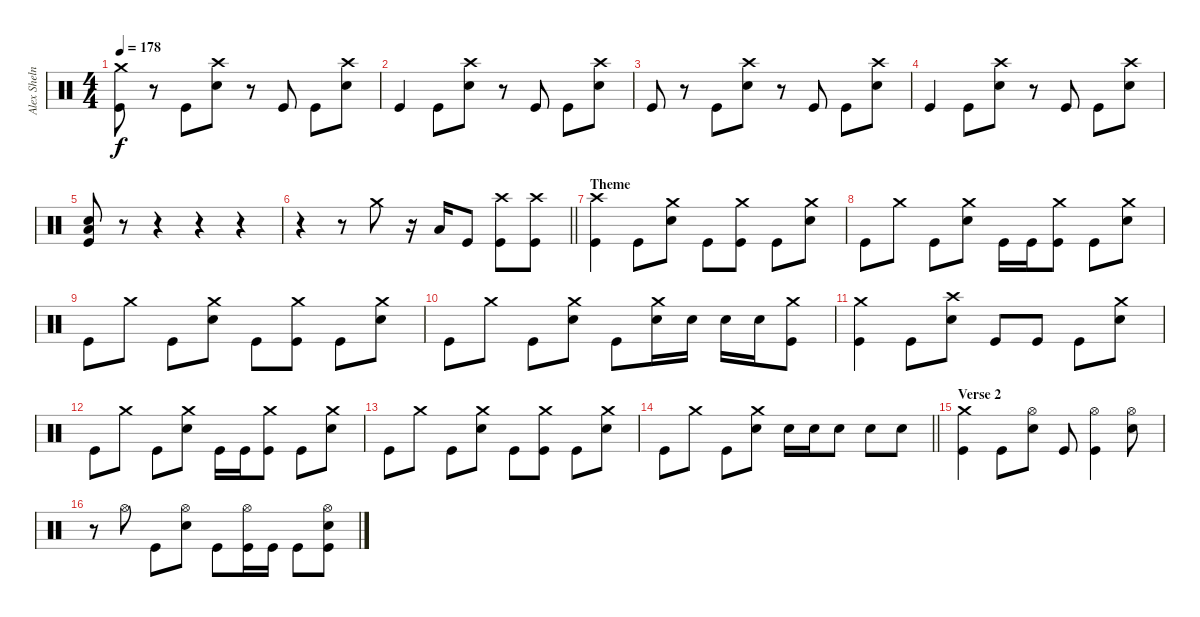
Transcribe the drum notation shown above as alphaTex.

\track ("Alex Shelnut" "Alex Sheln") {instrument percussion}
\staff {score}
\articulation defaults
\ts (4 4)
\tempo 178
\clef neutral
\ks c
("Crash medium (hit)" "Kick (hit)").8{dy f} r.8 "Kick (hit)".8 ("Crash high (hit)" "Electric Snare (hit)").8 r.8 "Kick (hit)".8 "Kick (hit)".8 ("Crash high (hit)" "Electric Snare (hit)").8 |
"Kick (hit)".4 "Kick (hit)".8 ("Crash high (hit)" "Electric Snare (hit)").8 r.8 "Kick (hit)".8 "Kick (hit)".8 ("Crash high (hit)" "Electric Snare (hit)").8 |
"Kick (hit)".8 r.8 "Kick (hit)".8 ("Crash high (hit)" "Electric Snare (hit)").8 r.8 "Kick (hit)".8 "Kick (hit)".8 ("Crash high (hit)" "Electric Snare (hit)").8 |
"Kick (hit)".4 "Kick (hit)".8 ("Crash high (hit)" "Electric Snare (hit)").8 r.8 "Kick (hit)".8 "Kick (hit)".8 ("Crash high (hit)" "Electric Snare (hit)").8 |
("Low Floor Tom (hit)" "Electric Snare (hit)" "Kick (hit)").8 r.8 r.4 r.4 r.4 |
\barLineRight lightlight
r.4 r.8 "Crash medium (hit)".8 r.16 "Low Floor Tom (hit)".16 "Kick (hit)".8 ("Crash high (hit)" "Kick (hit)").8 ("Crash high (hit)" "Kick (hit)").8 |
\section ("" "Theme")
("Crash high (hit)" "Kick (hit)").4 "Kick (hit)".8 ("Crash medium (hit)" "Electric Snare (hit)").8 "Kick (hit)".8 ("Crash medium (hit)" "Kick (hit)").8 "Kick (hit)".8 ("Crash medium (hit)" "Electric Snare (hit)").8 |
"Kick (hit)".8 "Crash medium (hit)".8 "Kick (hit)".8 ("Crash medium (hit)" "Electric Snare (hit)").8 "Kick (hit)".16 "Kick (hit)".16 ("Crash medium (hit)" "Kick (hit)").8 "Kick (hit)".8 ("Crash medium (hit)" "Electric Snare (hit)").8 |
"Kick (hit)".8 "Crash medium (hit)".8 "Kick (hit)".8 ("Crash medium (hit)" "Electric Snare (hit)").8 "Kick (hit)".8 ("Crash medium (hit)" "Kick (hit)").8 "Kick (hit)".8 ("Crash medium (hit)" "Electric Snare (hit)").8 |
"Kick (hit)".8 "Crash medium (hit)".8 "Kick (hit)".8 ("Crash medium (hit)" "Electric Snare (hit)").8 "Kick (hit)".8 ("Crash medium (hit)" "Electric Snare (hit)").16 "Electric Snare (hit)".16 "Electric Snare (hit)".16 "Electric Snare (hit)".16 ("Crash medium (hit)" "Kick (hit)").8 |
("Crash medium (hit)" "Kick (hit)").4 "Kick (hit)".8 ("Crash high (hit)" "Electric Snare (hit)").8 "Kick (hit)".8 "Kick (hit)".8 "Kick (hit)".8 ("Crash medium (hit)" "Electric Snare (hit)").8 |
"Kick (hit)".8 "Crash medium (hit)".8 "Kick (hit)".8 ("Crash medium (hit)" "Electric Snare (hit)").8 "Kick (hit)".16 "Kick (hit)".16 ("Crash medium (hit)" "Kick (hit)").8 "Kick (hit)".8 ("Crash medium (hit)" "Electric Snare (hit)").8 |
"Kick (hit)".8 "Crash medium (hit)".8 "Kick (hit)".8 ("Crash medium (hit)" "Electric Snare (hit)").8 "Kick (hit)".8 ("Crash medium (hit)" "Kick (hit)").8 "Kick (hit)".8 ("Crash medium (hit)" "Electric Snare (hit)").8 |
\barLineRight lightlight "Kick (hit)".8 "Crash medium (hit)".8 "Kick (hit)".8
("Crash medium (hit)" "Electric Snare (hit)").8 "Electric Snare (hit)".16 "Electric Snare (hit)".16 "Electric Snare (hit)".8 "Electric Snare (hit)".8 "Electric Snare (hit)".8 |
\section ("" "Verse 2")
("Crash medium (hit)" "Kick (hit)").4 "Kick (hit)".8 ("Hi-Hat (open)" "Electric Snare (hit)").8 "Kick (hit)".8 ("Hi-Hat (open)" "Kick (hit)").4 ("Hi-Hat (open)" "Electric Snare (hit)").8 |
r.8 "Hi-Hat (open)".8 "Kick (hit)".8 ("Hi-Hat (open)" "Electric Snare (hit)").8 "Kick (hit)".8 ("Hi-Hat (open)" "Kick (hit)").16 "Kick (hit)".16 "Kick (hit)".8 ("Hi-Hat (open)" "Electric Snare (hit)" "Kick (hit)").8
